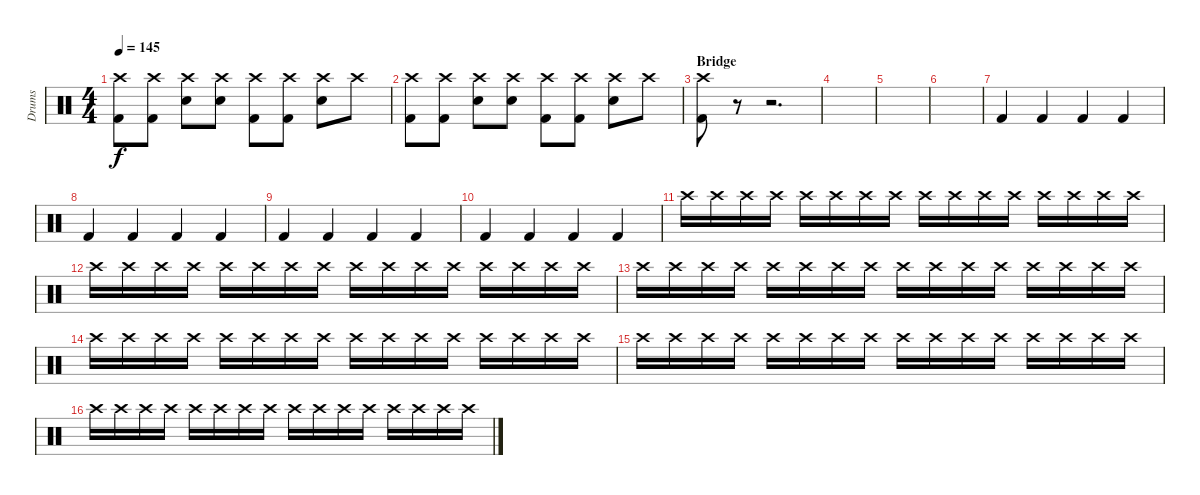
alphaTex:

\track ("Drums" "Drums") {instrument percussion}
\staff {score}
\articulation defaults
\ts (4 4)
\tempo 145
\clef neutral
\ks c
("Crash high (hit)" "Kick (hit) 2").8{dy f} ("Crash high (hit)" "Kick (hit) 2").8 ("Crash high (hit)" "Electric Snare (hit)").8 ("Crash high (hit)" "Electric Snare (hit)").8 ("Crash high (hit)" "Kick (hit) 2").8 ("Crash high (hit)" "Kick (hit) 2").8 ("Crash high (hit)" "Electric Snare (hit)").8 "Crash high (hit)".8 |
("Crash high (hit)" "Kick (hit) 2").8 ("Crash high (hit)" "Kick (hit) 2").8 ("Crash high (hit)" "Electric Snare (hit)").8 ("Crash high (hit)" "Electric Snare (hit)").8 ("Crash high (hit)" "Kick (hit) 2").8 ("Crash high (hit)" "Kick (hit) 2").8 ("Crash high (hit)" "Electric Snare (hit)").8 "Crash high (hit)".8 |
\section ("" "Bridge")
("Crash high (hit)" "Kick (hit) 2").8 r.8 r.2{d} |
|
|
|
"Kick (hit) 2".4 "Kick (hit) 2".4 "Kick (hit) 2".4 "Kick (hit) 2".4 |
"Kick (hit) 2".4 "Kick (hit) 2".4 "Kick (hit) 2".4 "Kick (hit) 2".4 |
"Kick (hit) 2".4 "Kick (hit) 2".4 "Kick (hit) 2".4 "Kick (hit) 2".4 |
"Kick (hit) 2".4 "Kick (hit) 2".4 "Kick (hit) 2".4 "Kick (hit) 2".4 |
"Crash high (hit)".16{volume 4} "Crash high (hit)".16 "Crash high (hit)".16 "Crash high (hit)".16 "Crash high (hit)".16 "Crash high (hit)".16 "Crash high (hit)".16 "Crash high (hit)".16 "Crash high (hit)".16 "Crash high (hit)".16 "Crash high (hit)".16 "Crash high (hit)".16 "Crash high (hit)".16 "Crash high (hit)".16 "Crash high (hit)".16 "Crash high (hit)".16 |
"Crash high (hit)".16 "Crash high (hit)".16 "Crash high (hit)".16 "Crash high (hit)".16 "Crash high (hit)".16 "Crash high (hit)".16 "Crash high (hit)".16 "Crash high (hit)".16 "Crash high (hit)".16 "Crash high (hit)".16 "Crash high (hit)".16 "Crash high (hit)".16 "Crash high (hit)".16 "Crash high (hit)".16 "Crash high (hit)".16 "Crash high (hit)".16 |
"Crash high (hit)".16{volume 4} "Crash high (hit)".16 "Crash high (hit)".16 "Crash high (hit)".16 "Crash high (hit)".16 "Crash high (hit)".16 "Crash high (hit)".16 "Crash high (hit)".16 "Crash high (hit)".16 "Crash high (hit)".16 "Crash high (hit)".16 "Crash high (hit)".16 "Crash high (hit)".16 "Crash high (hit)".16 "Crash high (hit)".16 "Crash high (hit)".16 |
"Crash high (hit)".16 "Crash high (hit)".16 "Crash high (hit)".16 "Crash high (hit)".16 "Crash high (hit)".16 "Crash high (hit)".16 "Crash high (hit)".16 "Crash high (hit)".16 "Crash high (hit)".16 "Crash high (hit)".16 "Crash high (hit)".16 "Crash high (hit)".16 "Crash high (hit)".16 "Crash high (hit)".16 "Crash high (hit)".16 "Crash high (hit)".16 |
"Crash high (hit)".16{volume 8} "Crash high (hit)".16 "Crash high (hit)".16 "Crash high (hit)".16 "Crash high (hit)".16 "Crash high (hit)".16 "Crash high (hit)".16 "Crash high (hit)".16 "Crash high (hit)".16 "Crash high (hit)".16 "Crash high (hit)".16 "Crash high (hit)".16 "Crash high (hit)".16 "Crash high (hit)".16 "Crash high (hit)".16 "Crash high (hit)".16 |
"Crash high (hit)".16 "Crash high (hit)".16 "Crash high (hit)".16 "Crash high (hit)".16 "Crash high (hit)".16 "Crash high (hit)".16 "Crash high (hit)".16 "Crash high (hit)".16 "Crash high (hit)".16 "Crash high (hit)".16 "Crash high (hit)".16 "Crash high (hit)".16 "Crash high (hit)".16 "Crash high (hit)".16 "Crash high (hit)".16 "Crash high (hit)".16
